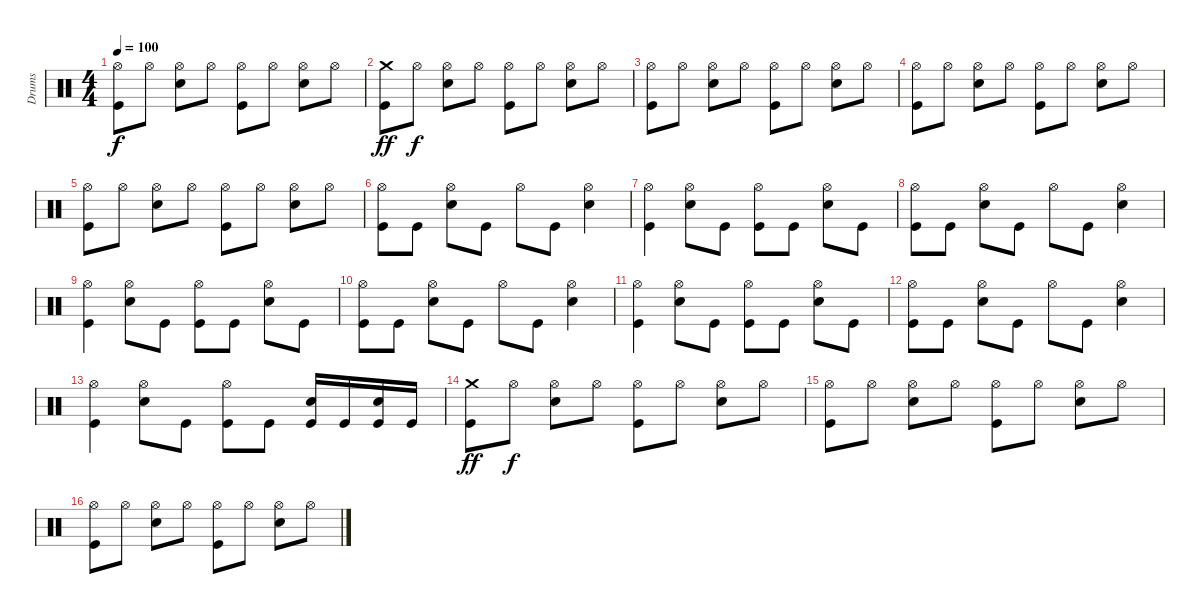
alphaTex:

\track ("Drums" "Drums") {instrument percussion}
\staff {score}
\articulation defaults
\ts (4 4)
\tempo 100
\clef neutral
\ks c
("Hi-Hat (open)" "Kick (hit)").8{dy f} "Hi-Hat (open)".8 ("Hi-Hat (open)" "Snare (hit) 2").8 "Hi-Hat (open)".8 ("Hi-Hat (open)" "Kick (hit)").8 "Hi-Hat (open)".8 ("Hi-Hat (open)" "Snare (hit) 2").8 "Hi-Hat (open)".8 |
("Crash medium (hit)" "Kick (hit)").8{dy ff} "Hi-Hat (open)".8{dy f} ("Hi-Hat (open)" "Snare (hit) 2").8 "Hi-Hat (open)".8 ("Hi-Hat (open)" "Kick (hit)").8 "Hi-Hat (open)".8 ("Hi-Hat (open)" "Snare (hit) 2").8 "Hi-Hat (open)".8 |
("Hi-Hat (open)" "Kick (hit)").8 "Hi-Hat (open)".8 ("Hi-Hat (open)" "Snare (hit) 2").8 "Hi-Hat (open)".8 ("Hi-Hat (open)" "Kick (hit)").8 "Hi-Hat (open)".8 ("Hi-Hat (open)" "Snare (hit) 2").8 "Hi-Hat (open)".8 |
("Hi-Hat (open)" "Kick (hit)").8 "Hi-Hat (open)".8 ("Hi-Hat (open)" "Snare (hit) 2").8 "Hi-Hat (open)".8 ("Hi-Hat (open)" "Kick (hit)").8 "Hi-Hat (open)".8 ("Hi-Hat (open)" "Snare (hit) 2").8 "Hi-Hat (open)".8 |
("Hi-Hat (open)" "Kick (hit)").8 "Hi-Hat (open)".8 ("Hi-Hat (open)" "Snare (hit) 2").8 "Hi-Hat (open)".8 ("Hi-Hat (open)" "Kick (hit)").8 "Hi-Hat (open)".8 ("Hi-Hat (open)" "Snare (hit) 2").8 "Hi-Hat (open)".8 |
("Hi-Hat (open)" "Kick (hit)").8 "Kick (hit)".8 ("Hi-Hat (open)" "Snare (hit) 2").8 "Kick (hit)".8 "Hi-Hat (open)".8 "Kick (hit)".8 ("Hi-Hat (open)" "Snare (hit) 2").4 |
("Hi-Hat (open)" "Kick (hit)").4 ("Hi-Hat (open)" "Snare (hit) 2").8 "Kick (hit)".8 ("Hi-Hat (open)" "Kick (hit)").8 "Kick (hit)".8 ("Hi-Hat (open)" "Snare (hit) 2").8 "Kick (hit)".8 |
("Hi-Hat (open)" "Kick (hit)").8 "Kick (hit)".8 ("Hi-Hat (open)" "Snare (hit) 2").8 "Kick (hit)".8 "Hi-Hat (open)".8 "Kick (hit)".8 ("Hi-Hat (open)" "Snare (hit) 2").4 |
("Hi-Hat (open)" "Kick (hit)").4 ("Hi-Hat (open)" "Snare (hit) 2").8 "Kick (hit)".8 ("Hi-Hat (open)" "Kick (hit)").8 "Kick (hit)".8 ("Hi-Hat (open)" "Snare (hit) 2").8 "Kick (hit)".8 |
("Hi-Hat (open)" "Kick (hit)").8 "Kick (hit)".8 ("Hi-Hat (open)" "Snare (hit) 2").8 "Kick (hit)".8 "Hi-Hat (open)".8 "Kick (hit)".8 ("Hi-Hat (open)" "Snare (hit) 2").4 |
("Hi-Hat (open)" "Kick (hit)").4 ("Hi-Hat (open)" "Snare (hit) 2").8 "Kick (hit)".8 ("Hi-Hat (open)" "Kick (hit)").8 "Kick (hit)".8 ("Hi-Hat (open)" "Snare (hit) 2").8 "Kick (hit)".8 |
("Hi-Hat (open)" "Kick (hit)").8 "Kick (hit)".8 ("Hi-Hat (open)" "Snare (hit) 2").8 "Kick (hit)".8 "Hi-Hat (open)".8 "Kick (hit)".8 ("Hi-Hat (open)" "Snare (hit) 2").4 |
("Hi-Hat (open)" "Kick (hit)").4 ("Hi-Hat (open)" "Snare (hit) 2").8 "Kick (hit)".8 ("Hi-Hat (open)" "Kick (hit)").8 "Kick (hit)".8 ("Snare (hit) 2" "Kick (hit)").16 "Kick (hit)".16 ("Snare (hit) 2" "Kick (hit)").16 "Kick (hit)".16 |
("Crash medium (hit)" "Kick (hit)").8{dy ff} "Hi-Hat (open)".8{dy f} ("Hi-Hat (open)" "Snare (hit) 2").8 "Hi-Hat (open)".8 ("Hi-Hat (open)" "Kick (hit)").8 "Hi-Hat (open)".8 ("Hi-Hat (open)" "Snare (hit) 2").8 "Hi-Hat (open)".8 |
("Hi-Hat (open)" "Kick (hit)").8 "Hi-Hat (open)".8 ("Hi-Hat (open)" "Snare (hit) 2").8 "Hi-Hat (open)".8 ("Hi-Hat (open)" "Kick (hit)").8 "Hi-Hat (open)".8 ("Hi-Hat (open)" "Snare (hit) 2").8 "Hi-Hat (open)".8 |
("Hi-Hat (open)" "Kick (hit)").8 "Hi-Hat (open)".8 ("Hi-Hat (open)" "Snare (hit) 2").8 "Hi-Hat (open)".8 ("Hi-Hat (open)" "Kick (hit)").8 "Hi-Hat (open)".8 ("Hi-Hat (open)" "Snare (hit) 2").8 "Hi-Hat (open)".8
